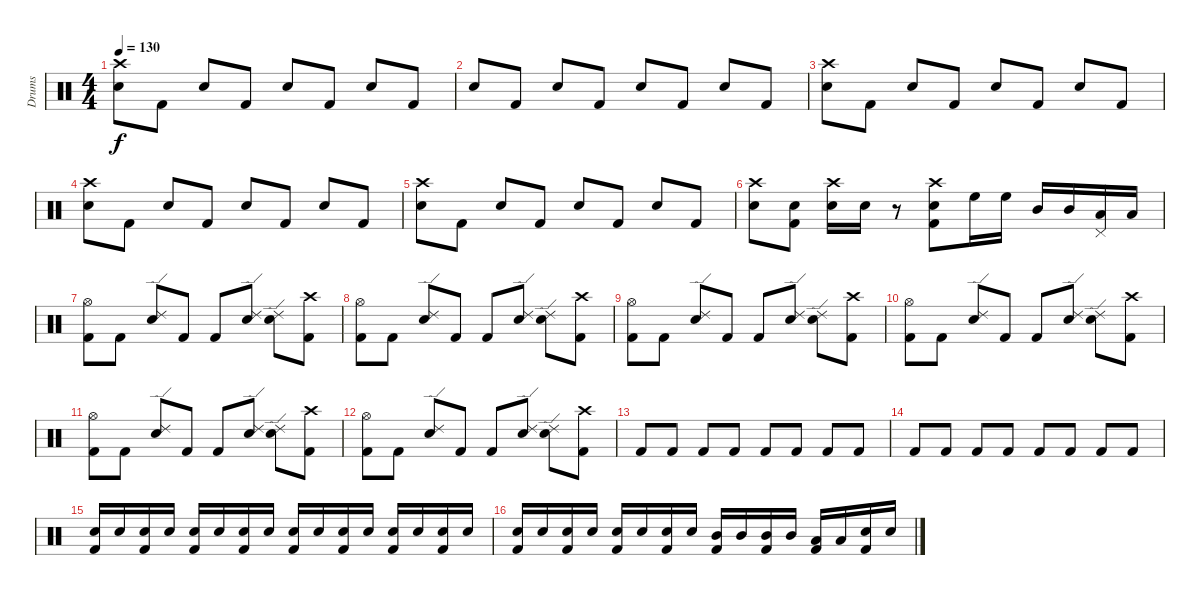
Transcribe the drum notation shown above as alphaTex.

\track ("Drums" "Drums") {instrument percussion}
\staff {score}
\articulation defaults
\ts (4 4)
\tempo 130
\clef neutral
\ks c
("Crash high (hit)" "Electric Snare (hit)").8{dy f} "Kick (hit) 2".8 "Electric Snare (hit)".8 "Kick (hit) 2".8 "Electric Snare (hit)".8 "Kick (hit) 2".8 "Electric Snare (hit)".8 "Kick (hit) 2".8 |
"Electric Snare (hit)".8 "Kick (hit) 2".8 "Electric Snare (hit)".8 "Kick (hit) 2".8 "Electric Snare (hit)".8 "Kick (hit) 2".8 "Electric Snare (hit)".8 "Kick (hit) 2".8 |
("Crash high (hit)" "Electric Snare (hit)").8 "Kick (hit) 2".8 "Electric Snare (hit)".8 "Kick (hit) 2".8 "Electric Snare (hit)".8 "Kick (hit) 2".8 "Electric Snare (hit)".8 "Kick (hit) 2".8 |
("Crash high (hit)" "Electric Snare (hit)").8 "Kick (hit) 2".8 "Electric Snare (hit)".8 "Kick (hit) 2".8 "Electric Snare (hit)".8 "Kick (hit) 2".8 "Electric Snare (hit)".8 "Kick (hit) 2".8 |
("Crash high (hit)" "Electric Snare (hit)").8 "Kick (hit) 2".8 "Electric Snare (hit)".8 "Kick (hit) 2".8 "Electric Snare (hit)".8 "Kick (hit) 2".8 "Electric Snare (hit)".8 "Kick (hit) 2".8 |
("Crash high (hit)" "Electric Snare (hit)").8 ("Electric Snare (hit)" "Kick (hit) 2").8 ("Crash high (hit)" "Electric Snare (hit)").16 "Electric Snare (hit)".16 r.8 ("Crash high (hit)" "Electric Snare (hit)" "Kick (hit) 2").8 "High Floor Tom (hit)".16 "High Floor Tom (hit)".16 "Mid Tom (hit)".16 "Mid Tom (hit)".16 ("Low Tom (hit)" "Pedal Hi-Hat (hit)").16 "Low Tom (hit)".16 |
("Hi-Hat (open)" "Kick (hit) 2").8 "Kick (hit) 2".8 ("Ride (edge) 2" "Electric Snare (hit)").8 "Kick (hit) 2".8 "Kick (hit) 2".8 ("Ride (edge) 2" "Electric Snare (hit)").8 ("Ride (edge) 2" "Electric Snare (hit)").8 ("Crash high (hit)" "Kick (hit) 2").8 |
("Hi-Hat (open)" "Kick (hit) 2").8 "Kick (hit) 2".8 ("Ride (edge) 2" "Electric Snare (hit)").8 "Kick (hit) 2".8 "Kick (hit) 2".8 ("Ride (edge) 2" "Electric Snare (hit)").8 ("Ride (edge) 2" "Electric Snare (hit)").8 ("Crash high (hit)" "Kick (hit) 2").8 |
("Hi-Hat (open)" "Kick (hit) 2").8 "Kick (hit) 2".8 ("Ride (edge) 2" "Electric Snare (hit)").8 "Kick (hit) 2".8 "Kick (hit) 2".8 ("Ride (edge) 2" "Electric Snare (hit)").8 ("Ride (edge) 2" "Electric Snare (hit)").8 ("Crash high (hit)" "Kick (hit) 2").8 |
("Hi-Hat (open)" "Kick (hit) 2").8 "Kick (hit) 2".8 ("Ride (edge) 2" "Electric Snare (hit)").8 "Kick (hit) 2".8 "Kick (hit) 2".8 ("Ride (edge) 2" "Electric Snare (hit)").8 ("Ride (edge) 2" "Electric Snare (hit)").8 ("Crash high (hit)" "Kick (hit) 2").8 |
("Hi-Hat (open)" "Kick (hit) 2").8 "Kick (hit) 2".8 ("Ride (edge) 2" "Electric Snare (hit)").8 "Kick (hit) 2".8 "Kick (hit) 2".8 ("Ride (edge) 2" "Electric Snare (hit)").8 ("Ride (edge) 2" "Electric Snare (hit)").8 ("Crash high (hit)" "Kick (hit) 2").8 |
("Hi-Hat (open)" "Kick (hit) 2").8 "Kick (hit) 2".8 ("Ride (edge) 2" "Electric Snare (hit)").8 "Kick (hit) 2".8 "Kick (hit) 2".8 ("Ride (edge) 2" "Electric Snare (hit)").8 ("Ride (edge) 2" "Electric Snare (hit)").8 ("Crash high (hit)" "Kick (hit) 2").8 |
"Kick (hit) 2".8 "Kick (hit) 2".8 "Kick (hit) 2".8 "Kick (hit) 2".8 "Kick (hit) 2".8 "Kick (hit) 2".8 "Kick (hit) 2".8 "Kick (hit) 2".8 |
"Kick (hit) 2".8 "Kick (hit) 2".8 "Kick (hit) 2".8 "Kick (hit) 2".8 "Kick (hit) 2".8 "Kick (hit) 2".8 "Kick (hit) 2".8 "Kick (hit) 2".8 |
("Electric Snare (hit)" "Kick (hit) 2").16 "Electric Snare (hit)".16 ("Electric Snare (hit)" "Kick (hit) 2").16 "Electric Snare (hit)".16 ("Electric Snare (hit)" "Kick (hit) 2").16 "Electric Snare (hit)".16 ("Electric Snare (hit)" "Kick (hit) 2").16 "Electric Snare (hit)".16 ("Electric Snare (hit)" "Kick (hit) 2").16 "Electric Snare (hit)".16 ("Electric Snare (hit)" "Kick (hit) 2").16 "Electric Snare (hit)".16 ("Electric Snare (hit)" "Kick (hit) 2").16 "Electric Snare (hit)".16 ("Electric Snare (hit)" "Kick (hit) 2").16 "Electric Snare (hit)".16 |
("Electric Snare (hit)" "Kick (hit) 2").16 "Electric Snare (hit)".16 ("Electric Snare (hit)" "Kick (hit) 2").16 "Electric Snare (hit)".16 ("Electric Snare (hit)" "Kick (hit) 2").16 "Electric Snare (hit)".16 ("Electric Snare (hit)" "Kick (hit) 2").16 "Electric Snare (hit)".16 ("Mid Tom (hit)" "Kick (hit) 2").16 "Mid Tom (hit)".16 ("Mid Tom (hit)" "Kick (hit) 2").16 "Mid Tom (hit)".16 ("Low Tom (hit)" "Kick (hit) 2").16 "Low Tom (hit)".16 ("Electric Snare (hit)" "Kick (hit) 2").16 "Electric Snare (hit)".16
